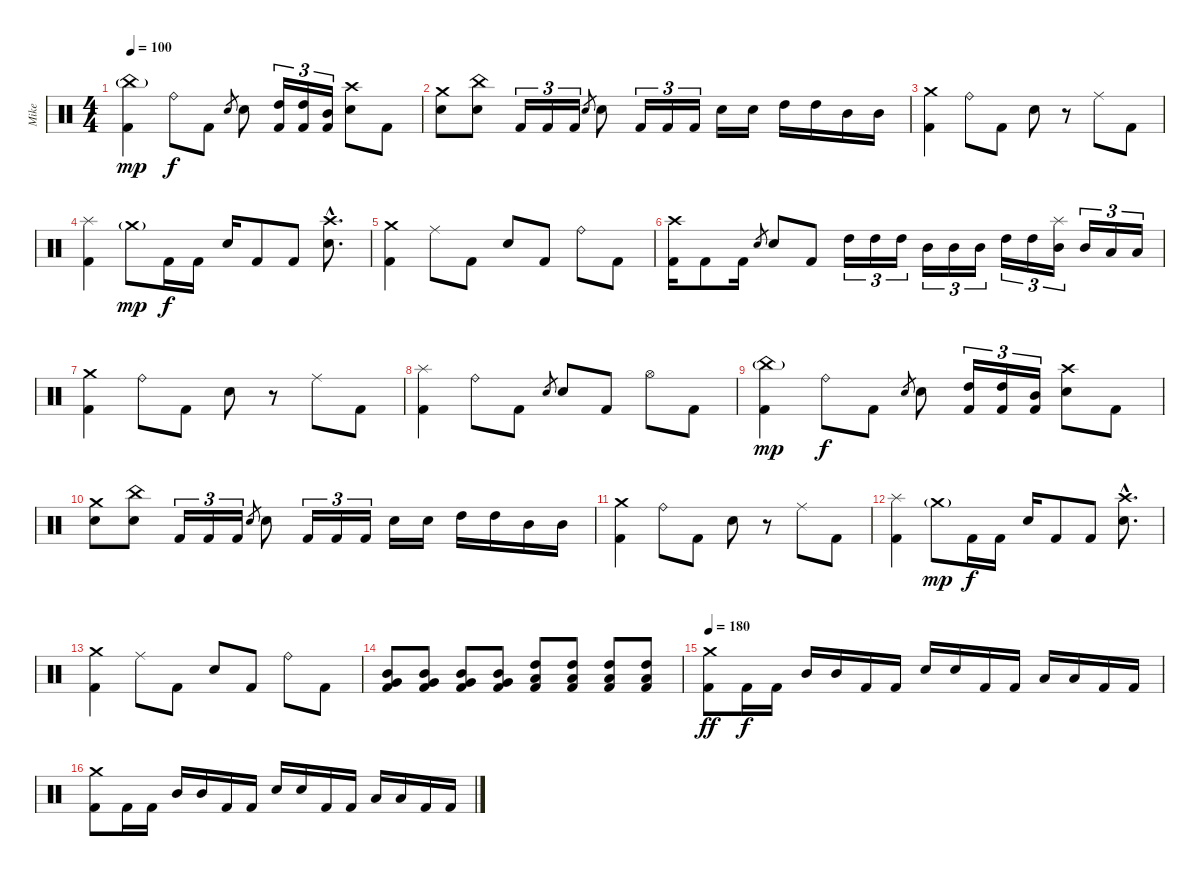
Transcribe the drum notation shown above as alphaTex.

\track ("Mike" "Mike") {instrument percussion}
\staff {score}
\articulation defaults
\ts (4 4)
\tempo 100
\clef neutral
\ks c
("China (hit)"{g} "Kick (hit) 2").4{dy mp} "Ride (bell)".8{dy f} "Kick (hit) 2".8 "Electric Snare (hit)".8{gr} "Electric Snare (hit)".8 ("High Tom (hit)" "Kick (hit) 2").16{tu (3 2)} ("High Tom (hit)" "Kick (hit) 2").16{tu (3 2)} ("Mid Tom (hit)" "Kick (hit) 2").16{tu (3 2)} ("Crash high (hit)" "Electric Snare (hit)").8 "Kick (hit) 2".8 |
("Crash medium (hit)" "Electric Snare (hit)").8 ("China (hit)" "Electric Snare (hit)").8 "Kick (hit) 2".16{tu (3 2)} "Kick (hit) 2".16{tu (3 2)} "Kick (hit) 2".16{tu (3 2)} "Electric Snare (hit)".8{gr} "Electric Snare (hit)".8 "Kick (hit) 2".16{tu (3 2)} "Kick (hit) 2".16{tu (3 2)} "Kick (hit) 2".16{tu (3 2)} "Electric Snare (hit)".16 "Electric Snare (hit)".16 "High Tom (hit)".16 "High Tom (hit)".16 "Mid Tom (hit)".16 "Mid Tom (hit)".16 |
("Crash medium (hit)" "Kick (hit) 2").4 "Ride (bell)".8 "Kick (hit) 2".8 "Electric Snare (hit)".8 r.8 "Ride (middle)".8 "Kick (hit) 2".8 |
("Splash (hit)" "Kick (hit) 2").4 "Crash medium (hit)"{g}.8{dy mp} "Kick (hit) 2".16{dy f} "Kick (hit) 2".16 "Electric Snare (hit)".16 "Kick (hit) 2".8 "Kick (hit) 2".8 ("Crash high (hit)"{hac} "Electric Snare (hit)"{hac}).8{d} |
("Crash medium (hit)" "Kick (hit) 2").4 "Ride (middle)".8 "Kick (hit) 2".8 "Electric Snare (hit)".8 "Kick (hit) 2".8 "Ride (bell)".8 "Kick (hit) 2".8 |
("Crash high (hit)" "Kick (hit) 2").16 "Kick (hit) 2".8 "Kick (hit) 2".16 "Electric Snare (hit)".8{gr} "Electric Snare (hit)".8 "Kick (hit) 2".8 "High Tom (hit)".16{tu (3 2)} "High Tom (hit)".16{tu (3 2)} "High Tom (hit)".16{tu (3 2)} "Mid Tom (hit)".16{tu (3 2)} "Mid Tom (hit)".16{tu (3 2)} "Mid Tom (hit)".16{tu (3 2)} "High Tom (hit)".16{tu (3 2)} "High Tom (hit)".16{tu (3 2)} ("Splash (hit)" "Mid Tom (hit)").16{tu (3 2)} "Mid Tom (hit)".16{tu (3 2)} "Low Tom (hit)".16{tu (3 2)} "Low Tom (hit)".16{tu (3 2)} |
("Crash medium (hit)" "Kick (hit) 2").4 "Ride (bell)".8 "Kick (hit) 2".8 "Electric Snare (hit)".8 r.8 "Ride (middle)".8 "Kick (hit) 2".8 |
("Splash (hit)" "Kick (hit) 2").4 "Ride (bell)".8 "Kick (hit) 2".8 "Electric Snare (hit)".8{gr} "Electric Snare (hit)".8 "Kick (hit) 2".8 "Hi-Hat (open)".8 "Kick (hit) 2".8 |
("China (hit)"{g} "Kick (hit) 2").4{dy mp} "Ride (bell)".8{dy f} "Kick (hit) 2".8 "Electric Snare (hit)".8{gr} "Electric Snare (hit)".8 ("High Tom (hit)" "Kick (hit) 2").16{tu (3 2)} ("High Tom (hit)" "Kick (hit) 2").16{tu (3 2)} ("Mid Tom (hit)" "Kick (hit) 2").16{tu (3 2)} ("Crash high (hit)" "Electric Snare (hit)").8 "Kick (hit) 2".8 |
("Crash medium (hit)" "Electric Snare (hit)").8 ("China (hit)" "Electric Snare (hit)").8 "Kick (hit) 2".16{tu (3 2)} "Kick (hit) 2".16{tu (3 2)} "Kick (hit) 2".16{tu (3 2)} "Electric Snare (hit)".8{gr} "Electric Snare (hit)".8 "Kick (hit) 2".16{tu (3 2)} "Kick (hit) 2".16{tu (3 2)} "Kick (hit) 2".16{tu (3 2)} "Electric Snare (hit)".16 "Electric Snare (hit)".16 "High Tom (hit)".16 "High Tom (hit)".16 "Mid Tom (hit)".16 "Mid Tom (hit)".16 |
("Crash medium (hit)" "Kick (hit) 2").4 "Ride (bell)".8 "Kick (hit) 2".8 "Electric Snare (hit)".8 r.8 "Ride (middle)".8 "Kick (hit) 2".8 |
("Splash (hit)" "Kick (hit) 2").4 "Crash medium (hit)"{g}.8{dy mp} "Kick (hit) 2".16{dy f} "Kick (hit) 2".16 "Electric Snare (hit)".16 "Kick (hit) 2".8 "Kick (hit) 2".8 ("Crash high (hit)"{hac} "Electric Snare (hit)"{hac}).8{d} |
("Crash medium (hit)" "Kick (hit) 2").4 "Ride (middle)".8 "Kick (hit) 2".8 "Electric Snare (hit)".8 "Kick (hit) 2".8 "Ride (bell)".8 "Kick (hit) 2".8 |
("Mid Tom (hit)" "Very Low Tom (hit)" "Kick (hit) 2").8 ("Mid Tom (hit)" "Very Low Tom (hit)" "Kick (hit) 2").8 ("Mid Tom (hit)" "Very Low Tom (hit)" "Kick (hit) 2").8 ("Mid Tom (hit)" "Very Low Tom (hit)" "Kick (hit) 2").8 ("High Tom (hit)" "Low Tom (hit)" "Kick (hit) 2").8 ("High Tom (hit)" "Low Tom (hit)" "Kick (hit) 2").8 ("High Tom (hit)" "Low Tom (hit)" "Kick (hit) 2").8 ("High Tom (hit)" "Low Tom (hit)" "Kick (hit) 2").8 |
\tempo 180
("Crash medium (hit)" "Kick (hit) 2").8{dy ff} "Kick (hit) 2".16{dy f} "Kick (hit) 2".16 "Mid Tom (hit)".16 "Mid Tom (hit)".16 "Kick (hit) 2".16 "Kick (hit) 2".16 "Electric Snare (hit)".16 "Electric Snare (hit)".16 "Kick (hit) 2".16 "Kick (hit) 2".16 "Low Tom (hit)".16 "Low Tom (hit)".16 "Kick (hit) 2".16 "Kick (hit) 2".16 |
("Crash medium (hit)" "Kick (hit) 2").8 "Kick (hit) 2".16 "Kick (hit) 2".16 "Mid Tom (hit)".16 "Mid Tom (hit)".16 "Kick (hit) 2".16 "Kick (hit) 2".16 "Electric Snare (hit)".16 "Electric Snare (hit)".16 "Kick (hit) 2".16 "Kick (hit) 2".16 "Low Tom (hit)".16 "Low Tom (hit)".16 "Kick (hit) 2".16 "Kick (hit) 2".16
